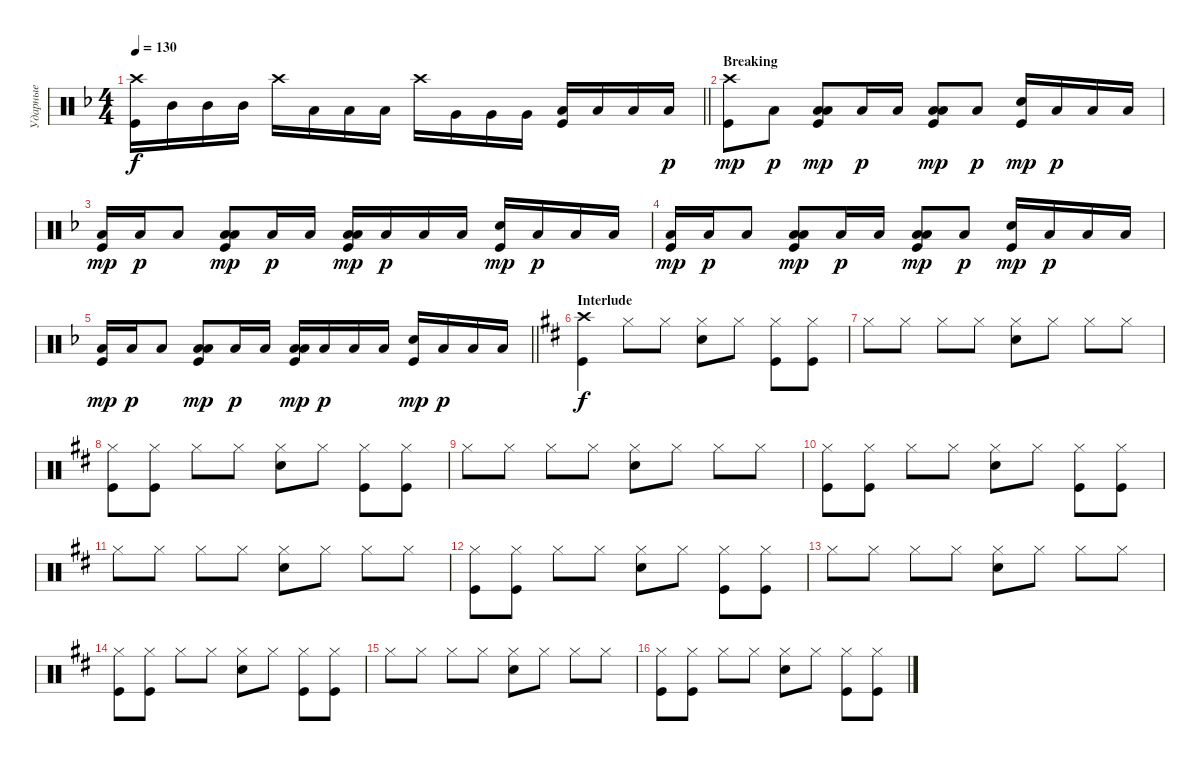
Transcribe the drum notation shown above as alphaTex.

\track ("Ударные" "Ударные") {instrument percussion}
\staff {score}
\articulation defaults
\ts (4 4)
\tempo 130
\clef neutral
\barLineRight lightlight
\ks dminor
("Kick (hit)" "Crash high (hit)").16{dy f} "Mid Tom (hit)".16 "Mid Tom (hit)".16 "Mid Tom (hit)".16 "Crash high (hit)".16 "Low Tom (hit)".16 "Low Tom (hit)".16 "Low Tom (hit)".16 "Crash high (hit)".16 "Very Low Tom (hit)".16 "Very Low Tom (hit)".16 "Very Low Tom (hit)".16 ("Low Floor Tom (hit)" "Kick (hit)").16 "Low Floor Tom (hit)".16 "Low Floor Tom (hit)".16 "Low Floor Tom (hit)".16{dy p} |
\section ("" "Breaking")
("Kick (hit)" "Crash high (hit)").8{dy mp} "Low Tom (hit)".8{dy p} ("Low Tom (hit)" "Kick (hit)" "Low Tom (hit)").8{bd 240 dy mp} "Low Tom (hit)".16{dy p} "Low Tom (hit)".16 ("Low Tom (hit)" "Kick (hit)" "Low Tom (hit)").8{bd 240 dy mp} "Low Tom (hit)".8{dy p} ("Kick (hit)" "Snare (hit) 2").16{dy mp} "Low Tom (hit)".16{dy p} "Low Tom (hit)".16 "Low Tom (hit)".16 |
("Low Tom (hit)" "Kick (hit)").16{dy mp} "Low Tom (hit)".16{dy p} "Low Tom (hit)".8{bd 240} ("Low Tom (hit)" "Kick (hit)" "Low Tom (hit)").8{bd 240 dy mp} "Low Tom (hit)".16{dy p} "Low Tom (hit)".16 ("Low Tom (hit)" "Kick (hit)" "Low Tom (hit)").16{bd 240 dy mp} "Low Tom (hit)".16{dy p} "Low Tom (hit)".16 "Low Tom (hit)".16 ("Kick (hit)" "Snare (hit) 2").16{dy mp} "Low Tom (hit)".16{dy p} "Low Tom (hit)".16 "Low Tom (hit)".16 |
("Low Tom (hit)" "Kick (hit)").16{dy mp} "Low Tom (hit)".16{dy p} "Low Tom (hit)".8{bd 240} ("Low Tom (hit)" "Kick (hit)" "Low Tom (hit)").8{bd 240 dy mp} "Low Tom (hit)".16{dy p} "Low Tom (hit)".16 ("Low Tom (hit)" "Kick (hit)" "Low Tom (hit)").8{bd 240 dy mp} "Low Tom (hit)".8{dy p} ("Kick (hit)" "Snare (hit) 2").16{dy mp} "Low Tom (hit)".16{dy p} "Low Tom (hit)".16 "Low Tom (hit)".16 |
\barLineRight lightlight
("Low Tom (hit)" "Kick (hit)").16{dy mp} "Low Tom (hit)".16{dy p} "Low Tom (hit)".8{bd 240} ("Low Tom (hit)" "Kick (hit)" "Low Tom (hit)").8{bd 240 dy mp} "Low Tom (hit)".16{dy p} "Low Tom (hit)".16 ("Low Tom (hit)" "Kick (hit)" "Low Tom (hit)").16{bd 240 dy mp} "Low Tom (hit)".16{dy p} "Low Tom (hit)".16 "Low Tom (hit)".16 ("Kick (hit)" "Snare (hit) 2").16{dy mp} "Low Tom (hit)".16{dy p} "Low Tom (hit)".16 "Low Tom (hit)".16 |
\section ("" "Interlude")
\ks bminor
("Crash high (hit)" "Kick (hit)").4{dy f} "Hi-Hat (closed)".8 "Hi-Hat (closed)".8 ("Hi-Hat (closed)" "Snare (hit) 2").8 "Hi-Hat (closed)".8 ("Hi-Hat (closed)" "Kick (hit)").8 ("Hi-Hat (closed)" "Kick (hit)").8 |
"Hi-Hat (closed)".8 "Hi-Hat (closed)".8 "Hi-Hat (closed)".8 "Hi-Hat (closed)".8 ("Hi-Hat (closed)" "Snare (hit) 2").8 "Hi-Hat (closed)".8 "Hi-Hat (closed)".8 "Hi-Hat (closed)".8 |
("Hi-Hat (closed)" "Kick (hit)").8 ("Hi-Hat (closed)" "Kick (hit)").8 "Hi-Hat (closed)".8 "Hi-Hat (closed)".8 ("Hi-Hat (closed)" "Snare (hit) 2").8 "Hi-Hat (closed)".8 ("Hi-Hat (closed)" "Kick (hit)").8 ("Hi-Hat (closed)" "Kick (hit)").8 |
"Hi-Hat (closed)".8 "Hi-Hat (closed)".8 "Hi-Hat (closed)".8 "Hi-Hat (closed)".8 ("Hi-Hat (closed)" "Snare (hit) 2").8 "Hi-Hat (closed)".8 "Hi-Hat (closed)".8 "Hi-Hat (closed)".8 |
("Hi-Hat (closed)" "Kick (hit)").8 ("Hi-Hat (closed)" "Kick (hit)").8 "Hi-Hat (closed)".8 "Hi-Hat (closed)".8 ("Hi-Hat (closed)" "Snare (hit) 2").8 "Hi-Hat (closed)".8 ("Hi-Hat (closed)" "Kick (hit)").8 ("Hi-Hat (closed)" "Kick (hit)").8 |
"Hi-Hat (closed)".8 "Hi-Hat (closed)".8 "Hi-Hat (closed)".8 "Hi-Hat (closed)".8 ("Hi-Hat (closed)" "Snare (hit) 2").8 "Hi-Hat (closed)".8 "Hi-Hat (closed)".8 "Hi-Hat (closed)".8 |
("Hi-Hat (closed)" "Kick (hit)").8 ("Hi-Hat (closed)" "Kick (hit)").8 "Hi-Hat (closed)".8 "Hi-Hat (closed)".8 ("Hi-Hat (closed)" "Snare (hit) 2").8 "Hi-Hat (closed)".8 ("Hi-Hat (closed)" "Kick (hit)").8 ("Hi-Hat (closed)" "Kick (hit)").8 |
"Hi-Hat (closed)".8 "Hi-Hat (closed)".8 "Hi-Hat (closed)".8 "Hi-Hat (closed)".8 ("Hi-Hat (closed)" "Snare (hit) 2").8 "Hi-Hat (closed)".8 "Hi-Hat (closed)".8 "Hi-Hat (closed)".8 |
("Hi-Hat (closed)" "Kick (hit)").8 ("Hi-Hat (closed)" "Kick (hit)").8 "Hi-Hat (closed)".8 "Hi-Hat (closed)".8 ("Hi-Hat (closed)" "Snare (hit) 2").8 "Hi-Hat (closed)".8 ("Hi-Hat (closed)" "Kick (hit)").8 ("Hi-Hat (closed)" "Kick (hit)").8 |
"Hi-Hat (closed)".8 "Hi-Hat (closed)".8 "Hi-Hat (closed)".8 "Hi-Hat (closed)".8 ("Hi-Hat (closed)" "Snare (hit) 2").8 "Hi-Hat (closed)".8 "Hi-Hat (closed)".8 "Hi-Hat (closed)".8 |
("Hi-Hat (closed)" "Kick (hit)").8 ("Hi-Hat (closed)" "Kick (hit)").8 "Hi-Hat (closed)".8 "Hi-Hat (closed)".8 ("Hi-Hat (closed)" "Snare (hit) 2").8 "Hi-Hat (closed)".8 ("Hi-Hat (closed)" "Kick (hit)").8 ("Hi-Hat (closed)" "Kick (hit)").8
